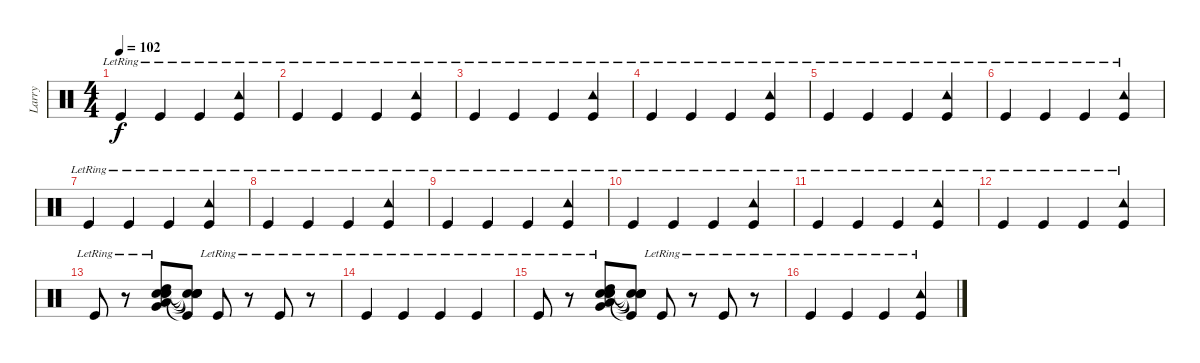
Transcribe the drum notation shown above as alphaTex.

\track ("Larry" "Larry") {instrument percussion}
\staff {score}
\articulation defaults
\ts (4 4)
\tempo 102
\clef neutral
\ks c "Kick (hit)"{lr}.4{dy f} "Kick (hit)"{lr}.4 "Kick (hit)"{lr}.4
("Tambourine (hit)"{lr} "Kick (hit)"{lr}).4 |
"Kick (hit)"{lr}.4 "Kick (hit)"{lr}.4 "Kick (hit)"{lr}.4 ("Tambourine (hit)"{lr} "Kick (hit)"{lr}).4 |
"Kick (hit)"{lr}.4 "Kick (hit)"{lr}.4 "Kick (hit)"{lr}.4 ("Tambourine (hit)"{lr} "Kick (hit)"{lr}).4 |
"Kick (hit)"{lr}.4 "Kick (hit)"{lr}.4 "Kick (hit)"{lr}.4 ("Tambourine (hit)"{lr} "Kick (hit)"{lr}).4 |
"Kick (hit)"{lr}.4 "Kick (hit)"{lr}.4 "Kick (hit)"{lr}.4 ("Tambourine (hit)"{lr} "Kick (hit)"{lr}).4 |
"Kick (hit)"{lr}.4 "Kick (hit)"{lr}.4 "Kick (hit)"{lr}.4 ("Tambourine (hit)"{lr} "Kick (hit)"{lr}).4 |
"Kick (hit)"{lr}.4 "Kick (hit)"{lr}.4 "Kick (hit)"{lr}.4 ("Tambourine (hit)"{lr} "Kick (hit)"{lr}).4 |
"Kick (hit)"{lr}.4 "Kick (hit)"{lr}.4 "Kick (hit)"{lr}.4 ("Tambourine (hit)"{lr} "Kick (hit)"{lr}).4 |
"Kick (hit)"{lr}.4 "Kick (hit)"{lr}.4 "Kick (hit)"{lr}.4 ("Tambourine (hit)"{lr} "Kick (hit)"{lr}).4 |
"Kick (hit)"{lr}.4 "Kick (hit)"{lr}.4 "Kick (hit)"{lr}.4 ("Tambourine (hit)"{lr} "Kick (hit)"{lr}).4 |
"Kick (hit)"{lr}.4 "Kick (hit)"{lr}.4 "Kick (hit)"{lr}.4 ("Tambourine (hit)"{lr} "Kick (hit)"{lr}).4 |
"Kick (hit)"{lr}.4 "Kick (hit)"{lr}.4 "Kick (hit)"{lr}.4 ("Tambourine (hit)"{lr} "Kick (hit)"{lr}).4 |
"Kick (hit)"{lr}.8 r.8 ("Very Low Tom (hit)"{lr} "Low Floor Tom (hit)"{lr} "Snare (hit) 2"{lr} "High Tom (hit)"{lr} "Electric Snare (hit)"{lr} "Snare (hit) 2"{lr}).8{volume 16} ("Snare (hit)"{t} "Snare (hit)"{t} "Kick (hit)"{t} "Snare (hit)"{t} "Snare (hit)"{t}).8 "Kick (hit)"{lr}.8{volume 8} r.8 "Kick (hit)"{lr}.8 r.8 |
"Kick (hit)"{lr}.4 "Kick (hit)"{lr}.4 "Kick (hit)"{lr}.4 "Kick (hit)"{lr}.4 |
"Kick (hit)"{lr}.8 r.8 ("Very Low Tom (hit)"{lr} "Low Floor Tom (hit)"{lr} "Snare (hit) 2"{lr} "High Tom (hit)"{lr} "Electric Snare (hit)"{lr} "Snare (hit) 2"{lr}).8{volume 16} ("Snare (hit)"{t} "Snare (hit)"{t} "Kick (hit)"{t} "Snare (hit)"{t} "Snare (hit)"{t}).8 "Kick (hit)"{lr}.8{volume 8} r.8 "Kick (hit)"{lr}.8 r.8 |
"Kick (hit)"{lr}.4 "Kick (hit)"{lr}.4 "Kick (hit)"{lr}.4 ("Tambourine (hit)"{lr} "Kick (hit)"{lr}).4
